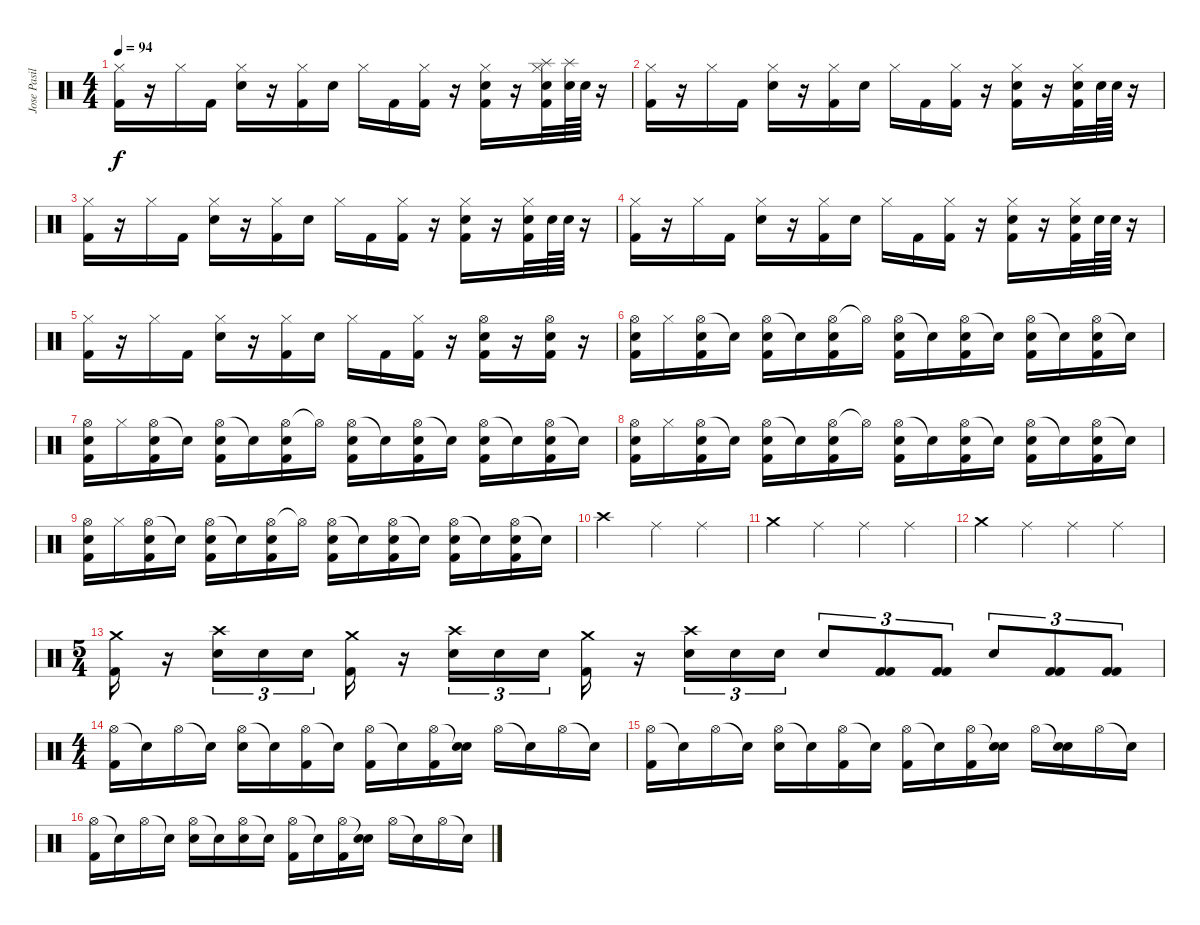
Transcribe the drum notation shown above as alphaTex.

\track ("Jose Pasillas" "Jose Pasil") {instrument percussion}
\staff {score}
\articulation defaults
\ts (4 4)
\tempo 94
\clef neutral
\ks c
("Hi-Hat (closed)" "Kick (hit) 2").16{dy f} r.16 "Hi-Hat (closed)".16 "Kick (hit) 2".16 ("Hi-Hat (closed)" "Electric Snare (hit)").16 r.16 ("Hi-Hat (closed)" "Kick (hit) 2").16 "Electric Snare (hit)".16 "Hi-Hat (closed)".16 "Kick (hit) 2".16 ("Hi-Hat (closed)" "Kick (hit) 2").16 r.16 ("Hi-Hat (closed)" "Electric Snare (hit)" "Kick (hit) 2").16 r.16 ("Splash (hit)" "Hi-Hat (closed)" "Electric Snare (hit)" "Kick (hit) 2").32 ("Splash (hit)" "Electric Snare (hit)").64 "Electric Snare (hit)".64 r.16 |
("Hi-Hat (closed)" "Kick (hit) 2").16 r.16 "Hi-Hat (closed)".16 "Kick (hit) 2".16 ("Hi-Hat (closed)" "Electric Snare (hit)").16 r.16 ("Hi-Hat (closed)" "Kick (hit) 2").16 "Electric Snare (hit)".16 "Hi-Hat (closed)".16 "Kick (hit) 2".16 ("Hi-Hat (closed)" "Kick (hit) 2").16 r.16 ("Hi-Hat (closed)" "Electric Snare (hit)" "Kick (hit) 2").16 r.16 ("Hi-Hat (closed)" "Electric Snare (hit)" "Kick (hit) 2").32 "Electric Snare (hit)".64 "Electric Snare (hit)".64 r.16 |
("Hi-Hat (closed)" "Kick (hit) 2").16 r.16 "Hi-Hat (closed)".16 "Kick (hit) 2".16 ("Hi-Hat (closed)" "Electric Snare (hit)").16 r.16 ("Hi-Hat (closed)" "Kick (hit) 2").16 "Electric Snare (hit)".16 "Hi-Hat (closed)".16 "Kick (hit) 2".16 ("Hi-Hat (closed)" "Kick (hit) 2").16 r.16 ("Hi-Hat (closed)" "Electric Snare (hit)" "Kick (hit) 2").16 r.16 ("Hi-Hat (closed)" "Electric Snare (hit)" "Kick (hit) 2").32 "Electric Snare (hit)".64 "Electric Snare (hit)".64 r.16 |
("Hi-Hat (closed)" "Kick (hit) 2").16 r.16 "Hi-Hat (closed)".16 "Kick (hit) 2".16 ("Hi-Hat (closed)" "Electric Snare (hit)").16 r.16 ("Hi-Hat (closed)" "Kick (hit) 2").16 "Electric Snare (hit)".16 "Hi-Hat (closed)".16 "Kick (hit) 2".16 ("Hi-Hat (closed)" "Kick (hit) 2").16 r.16 ("Hi-Hat (closed)" "Electric Snare (hit)" "Kick (hit) 2").16 r.16 ("Hi-Hat (closed)" "Electric Snare (hit)" "Kick (hit) 2").32 "Electric Snare (hit)".64 "Electric Snare (hit)".64 r.16 |
("Hi-Hat (closed)" "Kick (hit) 2").16 r.16 "Hi-Hat (closed)".16 "Kick (hit) 2".16 ("Hi-Hat (closed)" "Electric Snare (hit)").16 r.16 ("Hi-Hat (closed)" "Kick (hit) 2").16 "Electric Snare (hit)".16 "Hi-Hat (closed)".16 "Kick (hit) 2".16 ("Hi-Hat (closed)" "Kick (hit) 2").16 r.16 ("Hi-Hat (open)" "Electric Snare (hit)" "Kick (hit) 2").16 r.16 ("Hi-Hat (open)" "Electric Snare (hit)" "Kick (hit) 2").16 r.16 |
("Hi-Hat (open)" "Electric Snare (hit)" "Kick (hit) 2").16 "Hi-Hat (closed)".16 ("Hi-Hat (open)" "Electric Snare (hit)" "Kick (hit) 2").16 "Snare (hit)"{t}.16 ("Hi-Hat (open)" "Electric Snare (hit)" "Kick (hit) 2").16 "Snare (hit)"{t}.16 ("Hi-Hat (open)" "Electric Snare (hit)" "Kick (hit) 2").16 "Hi-Hat (open)"{t}.16 ("Hi-Hat (open)" "Electric Snare (hit)" "Kick (hit) 2").16 "Snare (hit)"{t}.16 ("Hi-Hat (open)" "Electric Snare (hit)" "Kick (hit) 2").16 "Snare (hit)"{t}.16 ("Hi-Hat (open)" "Electric Snare (hit)" "Kick (hit) 2").16 "Snare (hit)"{t}.16 ("Hi-Hat (open)" "Electric Snare (hit)" "Kick (hit) 2").16 "Snare (hit)"{t}.16 |
("Hi-Hat (open)" "Electric Snare (hit)" "Kick (hit) 2").16 "Hi-Hat (closed)".16 ("Hi-Hat (open)" "Electric Snare (hit)" "Kick (hit) 2").16 "Snare (hit)"{t}.16 ("Hi-Hat (open)" "Electric Snare (hit)" "Kick (hit) 2").16 "Snare (hit)"{t}.16 ("Hi-Hat (open)" "Electric Snare (hit)" "Kick (hit) 2").16 "Hi-Hat (open)"{t}.16 ("Hi-Hat (open)" "Electric Snare (hit)" "Kick (hit) 2").16 "Snare (hit)"{t}.16 ("Hi-Hat (open)" "Electric Snare (hit)" "Kick (hit) 2").16 "Snare (hit)"{t}.16 ("Hi-Hat (open)" "Electric Snare (hit)" "Kick (hit) 2").16 "Snare (hit)"{t}.16 ("Hi-Hat (open)" "Electric Snare (hit)" "Kick (hit) 2").16 "Snare (hit)"{t}.16 |
("Hi-Hat (open)" "Electric Snare (hit)" "Kick (hit) 2").16 "Hi-Hat (closed)".16 ("Hi-Hat (open)" "Electric Snare (hit)" "Kick (hit) 2").16 "Snare (hit)"{t}.16 ("Hi-Hat (open)" "Electric Snare (hit)" "Kick (hit) 2").16 "Snare (hit)"{t}.16 ("Hi-Hat (open)" "Electric Snare (hit)" "Kick (hit) 2").16 "Hi-Hat (open)"{t}.16 ("Hi-Hat (open)" "Electric Snare (hit)" "Kick (hit) 2").16 "Snare (hit)"{t}.16 ("Hi-Hat (open)" "Electric Snare (hit)" "Kick (hit) 2").16 "Snare (hit)"{t}.16 ("Hi-Hat (open)" "Electric Snare (hit)" "Kick (hit) 2").16 "Snare (hit)"{t}.16 ("Hi-Hat (open)" "Electric Snare (hit)" "Kick (hit) 2").16 "Snare (hit)"{t}.16 |
("Hi-Hat (open)" "Electric Snare (hit)" "Kick (hit) 2").16 "Hi-Hat (closed)".16 ("Hi-Hat (open)" "Electric Snare (hit)" "Kick (hit) 2").16 "Snare (hit)"{t}.16 ("Hi-Hat (open)" "Electric Snare (hit)" "Kick (hit) 2").16 "Snare (hit)"{t}.16 ("Hi-Hat (open)" "Electric Snare (hit)" "Kick (hit) 2").16 "Hi-Hat (open)"{t}.16 ("Hi-Hat (open)" "Electric Snare (hit)" "Kick (hit) 2").16 "Snare (hit)"{t}.16 ("Hi-Hat (open)" "Electric Snare (hit)" "Kick (hit) 2").16 "Snare (hit)"{t}.16 ("Hi-Hat (open)" "Electric Snare (hit)" "Kick (hit) 2").16 "Snare (hit)"{t}.16 ("Hi-Hat (open)" "Electric Snare (hit)" "Kick (hit) 2").16 "Snare (hit)"{t}.16 |
"Crash high (hit)".2 "Ride (middle)".4 "Ride (middle)".4 |
"Crash medium (hit)".4 "Ride (middle)".4 "Ride (middle)".4 "Ride (middle)".4 |
"Crash medium (hit)".4 "Ride (middle)".4 "Ride (middle)".4 "Ride (middle)".4 |
\ts (5 4)
("Crash medium (hit)" "Kick (hit) 2").16 r.16 ("Crash high (hit)" "Electric Snare (hit)").16{tu (3 2)} "Electric Snare (hit)".16{tu (3 2)} "Electric Snare (hit)".16{tu (3 2)} ("Crash medium (hit)" "Kick (hit) 2").16 r.16 ("Crash high (hit)" "Electric Snare (hit)").16{tu (3 2)} "Electric Snare (hit)".16{tu (3 2)} "Electric Snare (hit)".16{tu (3 2)} ("Crash medium (hit)" "Kick (hit) 2").16 r.16 ("Crash high (hit)" "Electric Snare (hit)").16{tu (3 2)} "Electric Snare (hit)".16{tu (3 2)} "Electric Snare (hit)".16{tu (3 2)} "Electric Snare (hit)".8{tu (3 2)} ("Kick (hit) 2" "Kick (hit) 2").8{tu (3 2)} ("Kick (hit) 2" "Kick (hit) 2").8{tu (3 2)} "Electric Snare (hit)".8{tu (3 2)} ("Kick (hit) 2" "Kick (hit) 2").8{tu (3 2)} ("Kick (hit) 2" "Kick (hit) 2").8{tu (3 2)} |
\ts (4 4)
("Hi-Hat (open)" "Kick (hit) 2").16 "Snare (hit)"{t}.16 "Hi-Hat (open)".16 "Snare (hit)"{t}.16 ("Hi-Hat (open)" "Electric Snare (hit)").16 "Snare (hit)"{t}.16 ("Hi-Hat (open)" "Kick (hit) 2").16 "Snare (hit)"{t}.16 ("Hi-Hat (open)" "Kick (hit) 2").16 "Snare (hit)"{t}.16 ("Hi-Hat (open)" "Kick (hit) 2").16 ("Snare (hit)"{t} "Electric Snare (hit)").16 "Hi-Hat (open)".16 "Snare (hit)"{t}.16 "Hi-Hat (open)".16 "Snare (hit)"{t}.16 |
("Hi-Hat (open)" "Kick (hit) 2").16 "Snare (hit)"{t}.16 "Hi-Hat (open)".16 "Snare (hit)"{t}.16 ("Hi-Hat (open)" "Electric Snare (hit)").16 "Snare (hit)"{t}.16 ("Hi-Hat (open)" "Kick (hit) 2").16 "Snare (hit)"{t}.16 ("Hi-Hat (open)" "Kick (hit) 2").16 "Snare (hit)"{t}.16 ("Hi-Hat (open)" "Kick (hit) 2").16 ("Snare (hit)"{t} "Electric Snare (hit)").16 "Hi-Hat (open)".16 ("Snare (hit)"{t} "Electric Snare (hit)").16 "Hi-Hat (open)".16 "Snare (hit)"{t}.16 |
("Hi-Hat (open)" "Kick (hit) 2").16 "Snare (hit)"{t}.16 "Hi-Hat (open)".16 "Snare (hit)"{t}.16 ("Hi-Hat (open)" "Electric Snare (hit)").16 "Snare (hit)"{t}.16 ("Hi-Hat (open)" "Electric Snare (hit)").16 "Snare (hit)"{t}.16 ("Hi-Hat (open)" "Kick (hit) 2").16 "Snare (hit)"{t}.16 ("Hi-Hat (open)" "Kick (hit) 2").16 ("Snare (hit)"{t} "Electric Snare (hit)").16 "Hi-Hat (open)".16 "Snare (hit)"{t}.16 "Hi-Hat (open)".16 "Snare (hit)"{t}.16
